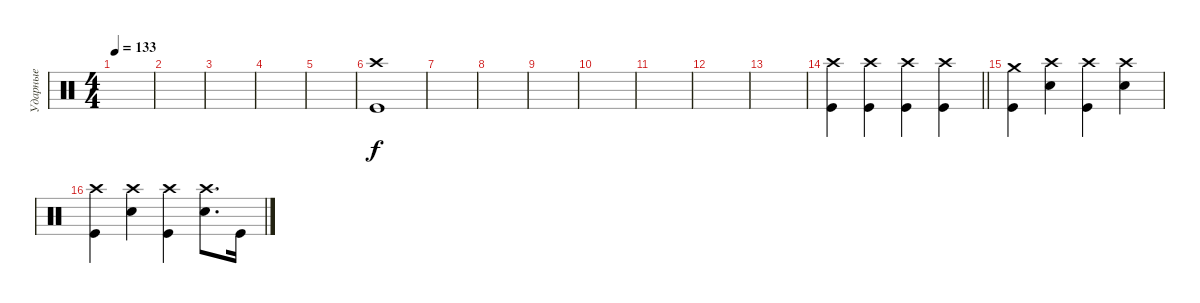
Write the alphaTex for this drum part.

\track ("Ударные" "Ударные") {instrument percussion}
\staff {score}
\articulation defaults
\ts (4 4)
\tempo 133
\clef neutral
\ks c
|
|
|
|
|
("Crash high (hit)" "Kick (hit)").1 |
|
|
|
|
|
|
|
\barLineRight lightlight
("Crash high (hit)" "Kick (hit)").4 ("Crash high (hit)" "Kick (hit)").4 ("Crash high (hit)" "Kick (hit)").4 ("Crash high (hit)" "Kick (hit)").4 |
("Crash medium (hit)" "Kick (hit)").4 ("Crash high (hit)" "Electric Snare (hit)").4 ("Crash high (hit)" "Kick (hit)").4 ("Crash high (hit)" "Electric Snare (hit)").4 |
("Crash high (hit)" "Kick (hit)").4 ("Crash high (hit)" "Electric Snare (hit)").4 ("Crash high (hit)" "Kick (hit)").4 ("Crash high (hit)" "Electric Snare (hit)").8{d} "Kick (hit)".16
